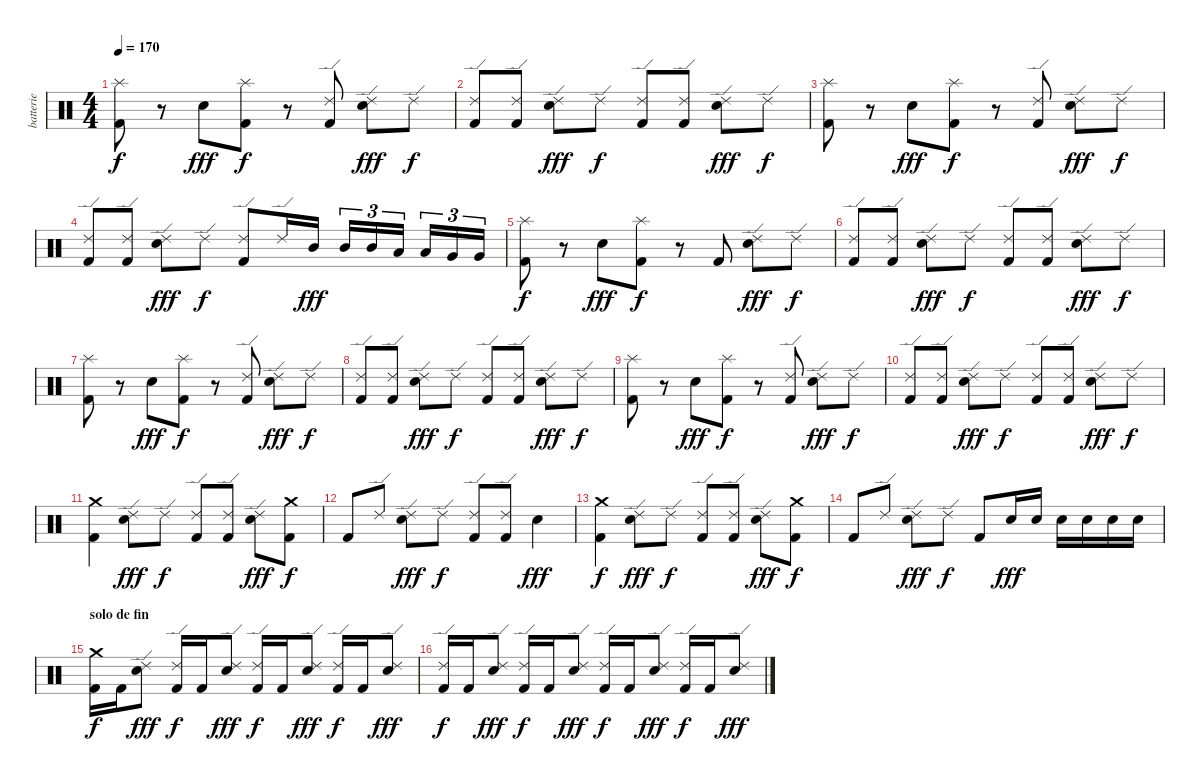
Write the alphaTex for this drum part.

\track ("batterie" "batterie") {instrument percussion}
\staff {score}
\articulation defaults
\ts (4 4)
\tempo 170
\clef neutral
\ks c
("Splash (hit)" "Kick (hit) 2").8{dy f} r.8 "Electric Snare (hit)".8{dy fff} ("Splash (hit)" "Kick (hit) 2").8{dy f} r.8 ("Ride (edge) 2" "Kick (hit) 2").8 ("Ride (edge) 2" "Electric Snare (hit)").8{dy fff} "Ride (edge) 2".8{dy f} |
("Ride (edge) 2" "Kick (hit) 2").8 ("Ride (edge) 2" "Kick (hit) 2").8 ("Ride (edge) 2" "Electric Snare (hit)").8{dy fff} "Ride (edge) 2".8{dy f} ("Ride (edge) 2" "Kick (hit) 2").8 ("Ride (edge) 2" "Kick (hit) 2").8 ("Ride (edge) 2" "Electric Snare (hit)").8{dy fff} "Ride (edge) 2".8{dy f} |
("Splash (hit)" "Kick (hit) 2").8 r.8 "Electric Snare (hit)".8{dy fff} ("Splash (hit)" "Kick (hit) 2").8{dy f} r.8 ("Ride (edge) 2" "Kick (hit) 2").8 ("Ride (edge) 2" "Electric Snare (hit)").8{dy fff} "Ride (edge) 2".8{dy f} |
("Ride (edge) 2" "Kick (hit) 2").8 ("Ride (edge) 2" "Kick (hit) 2").8 ("Ride (edge) 2" "Electric Snare (hit)").8{dy fff} "Ride (edge) 2".8{dy f} ("Ride (edge) 2" "Kick (hit) 2").8 "Ride (edge) 2".16 "Mid Tom (hit)".16{dy fff} "Mid Tom (hit)".16{tu (3 2)} "Mid Tom (hit)".16{tu (3 2)} "Low Tom (hit)".16{tu (3 2)} "Low Tom (hit)".16{tu (3 2)} "Very Low Tom (hit)".16{tu (3 2)} "Very Low Tom (hit)".16{tu (3 2)} |
("Splash (hit)" "Kick (hit) 2").8{dy f} r.8 "Electric Snare (hit)".8{dy fff} ("Splash (hit)" "Kick (hit) 2").8{dy f} r.8 "Kick (hit) 2".8 ("Ride (edge) 2" "Electric Snare (hit)").8{dy fff} "Ride (edge) 2".8{dy f} |
("Ride (edge) 2" "Kick (hit) 2").8 ("Ride (edge) 2" "Kick (hit) 2").8 ("Ride (edge) 2" "Electric Snare (hit)").8{dy fff} "Ride (edge) 2".8{dy f} ("Ride (edge) 2" "Kick (hit) 2").8 ("Ride (edge) 2" "Kick (hit) 2").8 ("Ride (edge) 2" "Electric Snare (hit)").8{dy fff} "Ride (edge) 2".8{dy f} |
("Splash (hit)" "Kick (hit) 2").8 r.8 "Electric Snare (hit)".8{dy fff} ("Splash (hit)" "Kick (hit) 2").8{dy f} r.8 ("Ride (edge) 2" "Kick (hit) 2").8 ("Ride (edge) 2" "Electric Snare (hit)").8{dy fff} "Ride (edge) 2".8{dy f} |
("Ride (edge) 2" "Kick (hit) 2").8 ("Ride (edge) 2" "Kick (hit) 2").8 ("Ride (edge) 2" "Electric Snare (hit)").8{dy fff} "Ride (edge) 2".8{dy f} ("Ride (edge) 2" "Kick (hit) 2").8 ("Ride (edge) 2" "Kick (hit) 2").8 ("Ride (edge) 2" "Electric Snare (hit)").8{dy fff} "Ride (edge) 2".8{dy f} |
("Splash (hit)" "Kick (hit) 2").8 r.8 "Electric Snare (hit)".8{dy fff} ("Splash (hit)" "Kick (hit) 2").8{dy f} r.8 ("Ride (edge) 2" "Kick (hit) 2").8 ("Ride (edge) 2" "Electric Snare (hit)").8{dy fff} "Ride (edge) 2".8{dy f} |
("Ride (edge) 2" "Kick (hit) 2").8 ("Ride (edge) 2" "Kick (hit) 2").8 ("Ride (edge) 2" "Electric Snare (hit)").8{dy fff} "Ride (edge) 2".8{dy f} ("Ride (edge) 2" "Kick (hit) 2").8 ("Ride (edge) 2" "Kick (hit) 2").8 ("Ride (edge) 2" "Electric Snare (hit)").8{dy fff} "Ride (edge) 2".8{dy f} |
("Crash medium (hit)" "Kick (hit) 2").4 ("Ride (edge) 2" "Electric Snare (hit)").8{dy fff} "Ride (edge) 2".8{dy f} ("Ride (edge) 2" "Kick (hit) 2").8 ("Ride (edge) 2" "Kick (hit) 2").8 ("Ride (edge) 2" "Electric Snare (hit)").8{dy fff} ("Crash medium (hit)" "Kick (hit) 2").8{dy f} |
"Kick (hit) 2".8 "Ride (edge) 2".8 ("Ride (edge) 2" "Electric Snare (hit)").8{dy fff} "Ride (edge) 2".8{dy f} ("Ride (edge) 2" "Kick (hit) 2").8 ("Ride (edge) 2" "Kick (hit) 2").8 "Electric Snare (hit)".4{dy fff} |
("Crash medium (hit)" "Kick (hit) 2").4{dy f} ("Ride (edge) 2" "Electric Snare (hit)").8{dy fff} "Ride (edge) 2".8{dy f} ("Ride (edge) 2" "Kick (hit) 2").8 ("Ride (edge) 2" "Kick (hit) 2").8 ("Ride (edge) 2" "Electric Snare (hit)").8{dy fff} ("Crash medium (hit)" "Kick (hit) 2").8{dy f} |
"Kick (hit) 2".8 "Ride (edge) 2".8 ("Ride (edge) 2" "Electric Snare (hit)").8{dy fff} "Ride (edge) 2".8{dy f} "Kick (hit) 2".8 "Electric Snare (hit)".16{dy fff} "Electric Snare (hit)".16 "Electric Snare (hit)".16 "Electric Snare (hit)".16 "Electric Snare (hit)".16 "Electric Snare (hit)".16 |
\section ("" "solo de fin")
("Crash medium (hit)" "Kick (hit) 2").16{dy f} "Kick (hit) 2".16 ("Ride (edge) 2" "Electric Snare (hit)").8{dy fff} ("Ride (edge) 2" "Kick (hit) 2").16{dy f} "Kick (hit) 2".16 ("Ride (edge) 2" "Electric Snare (hit)").8{dy fff} ("Ride (edge) 2" "Kick (hit) 2").16{dy f} "Kick (hit) 2".16 ("Ride (edge) 2" "Electric Snare (hit)").8{dy fff} ("Ride (edge) 2" "Kick (hit) 2").16{dy f} "Kick (hit) 2".16 ("Ride (edge) 2" "Electric Snare (hit)").8{dy fff} |
("Ride (edge) 2" "Kick (hit) 2").16{dy f} "Kick (hit) 2".16 ("Ride (edge) 2" "Electric Snare (hit)").8{dy fff} ("Ride (edge) 2" "Kick (hit) 2").16{dy f} "Kick (hit) 2".16 ("Ride (edge) 2" "Electric Snare (hit)").8{dy fff} ("Ride (edge) 2" "Kick (hit) 2").16{dy f} "Kick (hit) 2".16 ("Ride (edge) 2" "Electric Snare (hit)").8{dy fff} ("Ride (edge) 2" "Kick (hit) 2").16{dy f} "Kick (hit) 2".16 ("Ride (edge) 2" "Electric Snare (hit)").8{dy fff}
